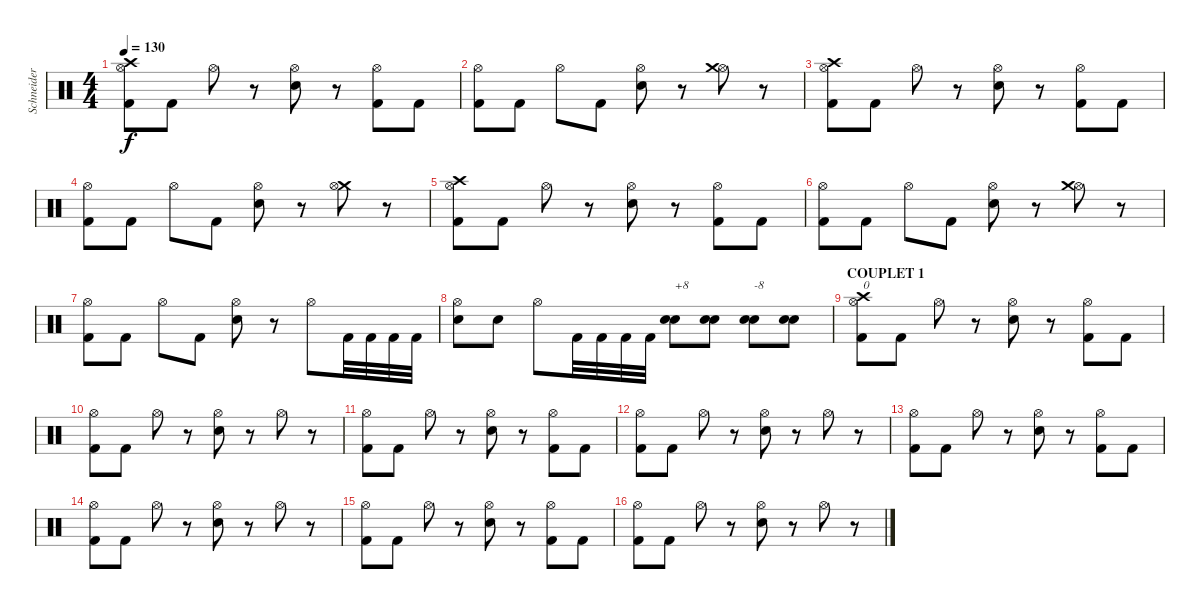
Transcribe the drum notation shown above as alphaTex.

\track ("Schneider - Drums" "Schneider ") {instrument percussion}
\staff {score}
\articulation defaults
\ts (4 4)
\tempo 130
\clef neutral
\ks c
("Kick (hit) 2" "Hi-Hat (open)" "Crash high (hit)").8{dy f} "Kick (hit) 2".8 "Hi-Hat (open)".8 r.8 ("Electric Snare (hit)" "Hi-Hat (open)").8 r.8 ("Kick (hit) 2" "Hi-Hat (open)").8 "Kick (hit) 2".8 |
("Kick (hit) 2" "Hi-Hat (open)").8 "Kick (hit) 2".8 "Hi-Hat (open)".8 "Kick (hit) 2".8 ("Electric Snare (hit)" "Hi-Hat (open)").8 r.8 ("Hi-Hat (open)" "Crash medium (hit)").8 r.8 |
("Kick (hit) 2" "Hi-Hat (open)" "Crash high (hit)").8 "Kick (hit) 2".8 "Hi-Hat (open)".8 r.8 ("Electric Snare (hit)" "Hi-Hat (open)").8 r.8 ("Kick (hit) 2" "Hi-Hat (open)").8 "Kick (hit) 2".8 |
("Kick (hit) 2" "Hi-Hat (open)").8 "Kick (hit) 2".8 "Hi-Hat (open)".8 "Kick (hit) 2".8 ("Electric Snare (hit)" "Hi-Hat (open)").8 r.8 ("Crash medium (hit)" "Hi-Hat (open)").8 r.8 |
("Kick (hit) 2" "Hi-Hat (open)" "Crash high (hit)").8 "Kick (hit) 2".8 "Hi-Hat (open)".8 r.8 ("Electric Snare (hit)" "Hi-Hat (open)").8 r.8 ("Kick (hit) 2" "Hi-Hat (open)").8 "Kick (hit) 2".8 |
("Kick (hit) 2" "Hi-Hat (open)").8 "Kick (hit) 2".8 "Hi-Hat (open)".8 "Kick (hit) 2".8 ("Electric Snare (hit)" "Hi-Hat (open)").8 r.8 ("Hi-Hat (open)" "Crash medium (hit)").8 r.8 |
("Kick (hit) 2" "Hi-Hat (open)").8 "Kick (hit) 2".8 "Hi-Hat (open)".8 "Kick (hit) 2".8 ("Electric Snare (hit)" "Hi-Hat (open)").8 r.8 "Hi-Hat (open)".8 "Kick (hit) 2".32 "Kick (hit) 2".32 "Kick (hit) 2".32 "Kick (hit) 2".32 |
("Electric Snare (hit)" "Hi-Hat (open)").8 "Electric Snare (hit)".8 "Hi-Hat (open)".8 "Kick (hit) 2".32 "Kick (hit) 2".32 "Kick (hit) 2".32 "Kick (hit) 2".32 ("Electric Snare (hit)" "Electric Snare (hit)").8{txt "+8" balance 16} ("Electric Snare (hit)" "Electric Snare (hit)").8 ("Electric Snare (hit)" "Electric Snare (hit)").8{txt "-8" balance 0} ("Electric Snare (hit)" "Electric Snare (hit)").8 |
\section ("" "COUPLET 1")
("Kick (hit) 2" "Hi-Hat (open)" "Crash high (hit)").8{txt "0" balance 8} "Kick (hit) 2".8 "Hi-Hat (open)".8 r.8 ("Electric Snare (hit)" "Hi-Hat (open)").8 r.8 ("Kick (hit) 2" "Hi-Hat (open)").8 "Kick (hit) 2".8 |
("Kick (hit) 2" "Hi-Hat (open)").8 "Kick (hit) 2".8 "Hi-Hat (open)".8 r.8 ("Electric Snare (hit)" "Hi-Hat (open)").8 r.8 "Hi-Hat (open)".8 r.8 |
("Kick (hit) 2" "Hi-Hat (open)").8 "Kick (hit) 2".8 "Hi-Hat (open)".8 r.8 ("Electric Snare (hit)" "Hi-Hat (open)").8 r.8 ("Kick (hit) 2" "Hi-Hat (open)").8 "Kick (hit) 2".8 |
("Kick (hit) 2" "Hi-Hat (open)").8 "Kick (hit) 2".8 "Hi-Hat (open)".8 r.8 ("Electric Snare (hit)" "Hi-Hat (open)").8 r.8 "Hi-Hat (open)".8 r.8 |
("Kick (hit) 2" "Hi-Hat (open)").8 "Kick (hit) 2".8 "Hi-Hat (open)".8 r.8 ("Electric Snare (hit)" "Hi-Hat (open)").8 r.8 ("Kick (hit) 2" "Hi-Hat (open)").8 "Kick (hit) 2".8 |
("Kick (hit) 2" "Hi-Hat (open)").8 "Kick (hit) 2".8 "Hi-Hat (open)".8 r.8 ("Electric Snare (hit)" "Hi-Hat (open)").8 r.8 "Hi-Hat (open)".8 r.8 |
("Kick (hit) 2" "Hi-Hat (open)").8 "Kick (hit) 2".8 "Hi-Hat (open)".8 r.8 ("Electric Snare (hit)" "Hi-Hat (open)").8 r.8 ("Kick (hit) 2" "Hi-Hat (open)").8 "Kick (hit) 2".8 |
("Kick (hit) 2" "Hi-Hat (open)").8 "Kick (hit) 2".8 "Hi-Hat (open)".8 r.8 ("Electric Snare (hit)" "Hi-Hat (open)").8 r.8 "Hi-Hat (open)".8 r.8
